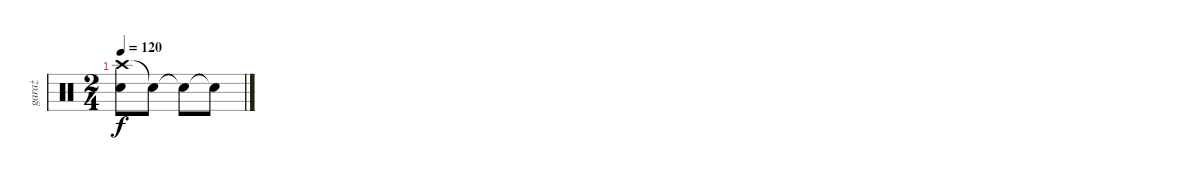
\track ("garaż" "garaż") {instrument percussion}
\staff {score}
\articulation defaults
\ts (2 4)
\tempo 120
\clef neutral
\ks c
("Crash high (hit)" "Snare (hit) 2").8{dy f} "Snare (hit)"{t}.8 "Snare (hit)"{t}.8 "Snare (hit)"{t}.8
